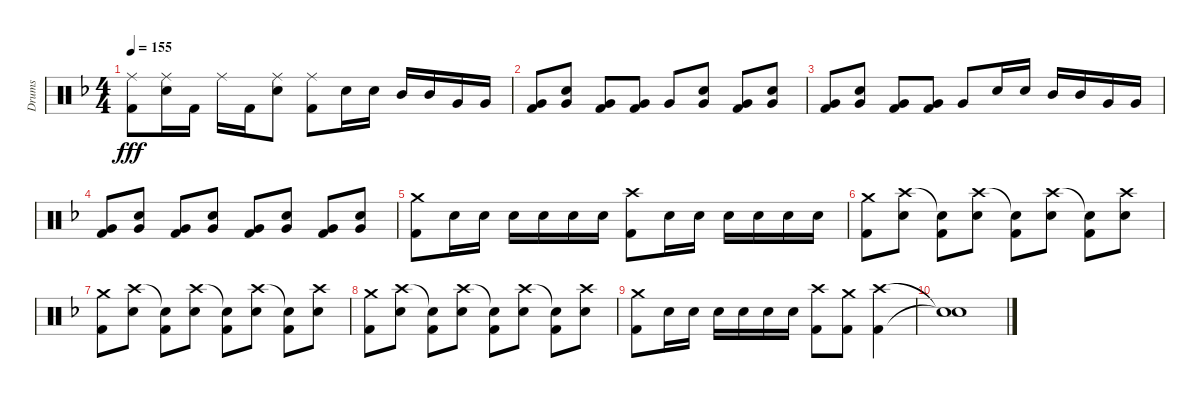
\track ("Drums" "Drums") {instrument percussion}
\staff {score}
\articulation defaults
\ts (4 4)
\tempo 155
\clef neutral
\ks f
("Ride (middle)" "Kick (hit) 2").8{dy fff} ("Ride (middle)" "Electric Snare (hit)").16 "Kick (hit) 2".16 "Ride (middle)".16 "Kick (hit) 2".16 ("Ride (middle)" "Electric Snare (hit)").8 ("Ride (middle)" "Kick (hit) 2").8 "Electric Snare (hit)".16 "Electric Snare (hit)".16 "Mid Tom (hit)".16 "Mid Tom (hit)".16 "Very Low Tom (hit)".16 "Very Low Tom (hit)".16 |
("Very Low Tom (hit)" "Kick (hit) 2").8 ("Electric Snare (hit)" "Very Low Tom (hit)").8 ("Very Low Tom (hit)" "Kick (hit) 2").8 ("Very Low Tom (hit)" "Kick (hit) 2").8 "Very Low Tom (hit)".8 ("Electric Snare (hit)" "Very Low Tom (hit)").8 ("Very Low Tom (hit)" "Kick (hit) 2").8 ("Electric Snare (hit)" "Very Low Tom (hit)").8 |
("Very Low Tom (hit)" "Kick (hit) 2").8 ("Electric Snare (hit)" "Very Low Tom (hit)").8 ("Very Low Tom (hit)" "Kick (hit) 2").8 ("Very Low Tom (hit)" "Kick (hit) 2").8 "Very Low Tom (hit)".8 "Electric Snare (hit)".16 "Electric Snare (hit)".16 "Mid Tom (hit)".16 "Mid Tom (hit)".16 "Very Low Tom (hit)".16 "Very Low Tom (hit)".16 |
("Very Low Tom (hit)" "Kick (hit) 2").8 ("Electric Snare (hit)" "Very Low Tom (hit)").8 ("Very Low Tom (hit)" "Kick (hit) 2").8 ("Electric Snare (hit)" "Very Low Tom (hit)").8 ("Very Low Tom (hit)" "Kick (hit) 2").8 ("Electric Snare (hit)" "Very Low Tom (hit)").8 ("Very Low Tom (hit)" "Kick (hit) 2").8 ("Electric Snare (hit)" "Very Low Tom (hit)").8 |
("Crash medium (hit)" "Kick (hit) 2").8 "Electric Snare (hit)".16 "Electric Snare (hit)".16 "Electric Snare (hit)".16 "Electric Snare (hit)".16 "Electric Snare (hit)".16 "Electric Snare (hit)".16 ("Crash high (hit)" "Kick (hit) 2").8 "Electric Snare (hit)".16 "Electric Snare (hit)".16 "Electric Snare (hit)".16 "Electric Snare (hit)".16 "Electric Snare (hit)".16 "Electric Snare (hit)".16 |
("Crash medium (hit)" "Kick (hit) 2").8 ("Crash high (hit)" "Electric Snare (hit)").8 ("Snare (hit)"{t} "Kick (hit) 2").8 ("Crash high (hit)" "Electric Snare (hit)").8 ("Snare (hit)"{t} "Kick (hit) 2").8 ("Crash high (hit)" "Electric Snare (hit)").8 ("Snare (hit)"{t} "Kick (hit) 2").8 ("Crash high (hit)" "Electric Snare (hit)").8 |
("Crash medium (hit)" "Kick (hit) 2").8 ("Crash high (hit)" "Electric Snare (hit)").8 ("Snare (hit)"{t} "Kick (hit) 2").8 ("Crash high (hit)" "Electric Snare (hit)").8 ("Snare (hit)"{t} "Kick (hit) 2").8 ("Crash high (hit)" "Electric Snare (hit)").8 ("Snare (hit)"{t} "Kick (hit) 2").8 ("Crash high (hit)" "Electric Snare (hit)").8 |
("Crash medium (hit)" "Kick (hit) 2").8 ("Crash high (hit)" "Electric Snare (hit)").8 ("Snare (hit)"{t} "Kick (hit) 2").8 ("Crash high (hit)" "Electric Snare (hit)").8 ("Snare (hit)"{t} "Kick (hit) 2").8 ("Crash high (hit)" "Electric Snare (hit)").8 ("Snare (hit)"{t} "Kick (hit) 2").8 ("Crash high (hit)" "Electric Snare (hit)").8 |
("Crash medium (hit)" "Kick (hit) 2").8 "Electric Snare (hit)".16 "Electric Snare (hit)".16 "Electric Snare (hit)".16 "Electric Snare (hit)".16 "Electric Snare (hit)".16 "Electric Snare (hit)".16 ("Crash high (hit)" "Kick (hit) 2").8 ("Crash medium (hit)" "Kick (hit) 2").8 ("Crash high (hit)" "Kick (hit) 2").4 |
("Snare (hit)"{t} "Snare (hit)"{t}).1
